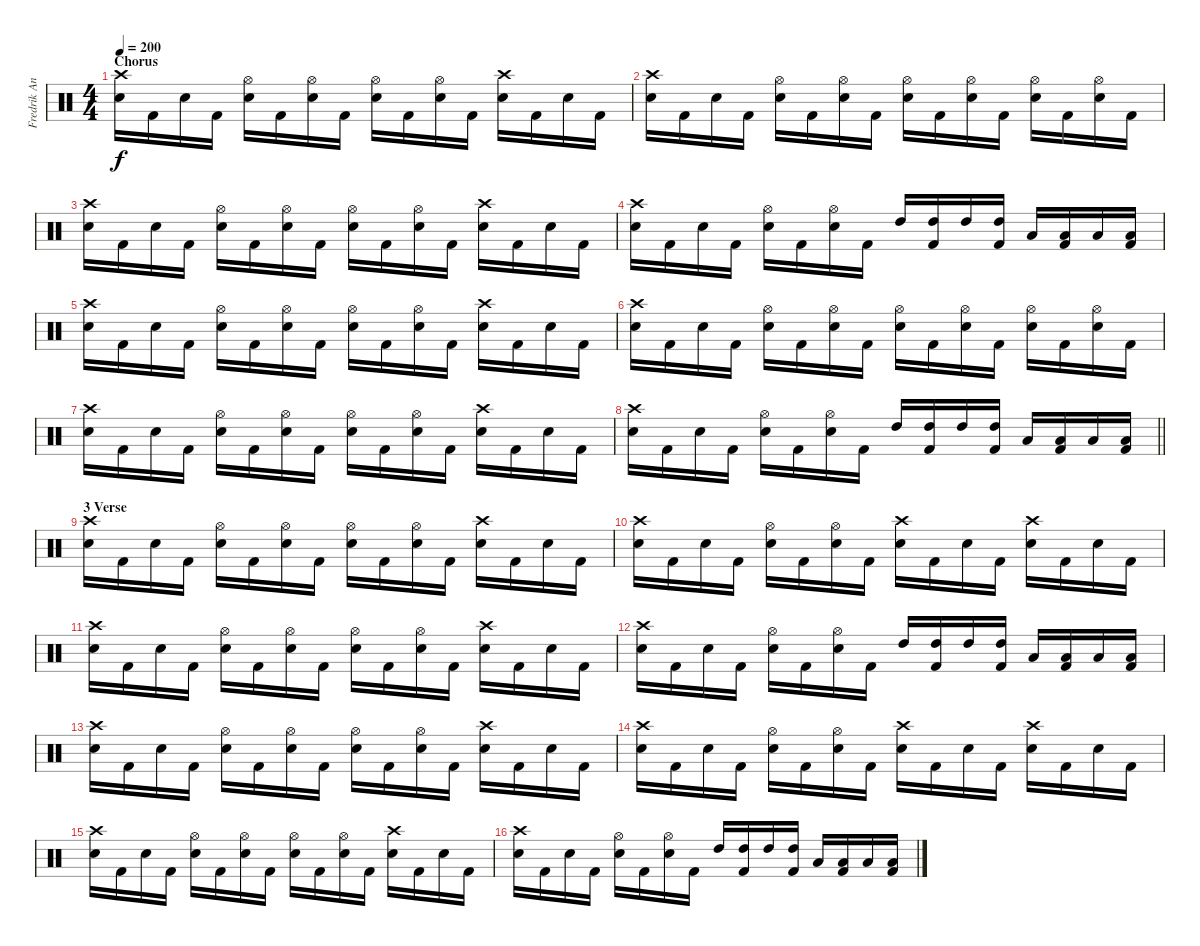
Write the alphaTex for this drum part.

\track ("Fredrik Andersson " "Fredrik An") {instrument percussion}
\staff {score}
\articulation defaults
\ts (4 4)
\section ("" "Chorus")
\tempo 200
\clef neutral
\ks c
("Crash high (hit)" "Snare (hit) 2").16{dy f} "Kick (hit) 2".16 "Snare (hit) 2".16 "Kick (hit) 2".16 ("Hi-Hat (open)" "Snare (hit) 2").16 "Kick (hit) 2".16 ("Hi-Hat (open)" "Snare (hit) 2").16 "Kick (hit) 2".16 ("Hi-Hat (open)" "Snare (hit) 2").16 "Kick (hit) 2".16 ("Hi-Hat (open)" "Snare (hit) 2").16 "Kick (hit) 2".16 ("Crash high (hit)" "Snare (hit) 2").16 "Kick (hit) 2".16 "Snare (hit) 2".16 "Kick (hit) 2".16 |
("Crash high (hit)" "Snare (hit) 2").16 "Kick (hit) 2".16 "Snare (hit) 2".16 "Kick (hit) 2".16 ("Hi-Hat (open)" "Snare (hit) 2").16 "Kick (hit) 2".16 ("Hi-Hat (open)" "Snare (hit) 2").16 "Kick (hit) 2".16 ("Hi-Hat (open)" "Snare (hit) 2").16 "Kick (hit) 2".16 ("Hi-Hat (open)" "Snare (hit) 2").16 "Kick (hit) 2".16 ("Hi-Hat (open)" "Snare (hit) 2").16 "Kick (hit) 2".16 ("Hi-Hat (open)" "Snare (hit) 2").16 "Kick (hit) 2".16 |
("Crash high (hit)" "Snare (hit) 2").16 "Kick (hit) 2".16 "Snare (hit) 2".16 "Kick (hit) 2".16 ("Hi-Hat (open)" "Snare (hit) 2").16 "Kick (hit) 2".16 ("Hi-Hat (open)" "Snare (hit) 2").16 "Kick (hit) 2".16 ("Hi-Hat (open)" "Snare (hit) 2").16 "Kick (hit) 2".16 ("Hi-Hat (open)" "Snare (hit) 2").16 "Kick (hit) 2".16 ("Crash high (hit)" "Snare (hit) 2").16 "Kick (hit) 2".16 "Snare (hit) 2".16 "Kick (hit) 2".16 |
("Crash high (hit)" "Snare (hit) 2").16 "Kick (hit) 2".16 "Snare (hit) 2".16 "Kick (hit) 2".16 ("Hi-Hat (open)" "Snare (hit) 2").16 "Kick (hit) 2".16 ("Hi-Hat (open)" "Snare (hit) 2").16 "Kick (hit) 2".16 "High Tom (hit)".16 ("High Tom (hit)" "Kick (hit) 2").16 "High Tom (hit)".16 ("High Tom (hit)" "Kick (hit) 2").16 "Low Tom (hit)".16 ("Low Tom (hit)" "Kick (hit) 2").16 "Low Tom (hit)".16 ("Low Tom (hit)" "Kick (hit) 2").16 |
("Crash high (hit)" "Snare (hit) 2").16 "Kick (hit) 2".16 "Snare (hit) 2".16 "Kick (hit) 2".16 ("Hi-Hat (open)" "Snare (hit) 2").16 "Kick (hit) 2".16 ("Hi-Hat (open)" "Snare (hit) 2").16 "Kick (hit) 2".16 ("Hi-Hat (open)" "Snare (hit) 2").16 "Kick (hit) 2".16 ("Hi-Hat (open)" "Snare (hit) 2").16 "Kick (hit) 2".16 ("Crash high (hit)" "Snare (hit) 2").16 "Kick (hit) 2".16 "Snare (hit) 2".16 "Kick (hit) 2".16 |
("Crash high (hit)" "Snare (hit) 2").16 "Kick (hit) 2".16 "Snare (hit) 2".16 "Kick (hit) 2".16 ("Hi-Hat (open)" "Snare (hit) 2").16 "Kick (hit) 2".16 ("Hi-Hat (open)" "Snare (hit) 2").16 "Kick (hit) 2".16 ("Hi-Hat (open)" "Snare (hit) 2").16 "Kick (hit) 2".16 ("Hi-Hat (open)" "Snare (hit) 2").16 "Kick (hit) 2".16 ("Hi-Hat (open)" "Snare (hit) 2").16 "Kick (hit) 2".16 ("Hi-Hat (open)" "Snare (hit) 2").16 "Kick (hit) 2".16 |
("Crash high (hit)" "Snare (hit) 2").16 "Kick (hit) 2".16 "Snare (hit) 2".16 "Kick (hit) 2".16 ("Hi-Hat (open)" "Snare (hit) 2").16 "Kick (hit) 2".16 ("Hi-Hat (open)" "Snare (hit) 2").16 "Kick (hit) 2".16 ("Hi-Hat (open)" "Snare (hit) 2").16 "Kick (hit) 2".16 ("Hi-Hat (open)" "Snare (hit) 2").16 "Kick (hit) 2".16 ("Crash high (hit)" "Snare (hit) 2").16 "Kick (hit) 2".16 "Snare (hit) 2".16 "Kick (hit) 2".16 |
\barLineRight lightlight
("Crash high (hit)" "Snare (hit) 2").16 "Kick (hit) 2".16 "Snare (hit) 2".16 "Kick (hit) 2".16 ("Hi-Hat (open)" "Snare (hit) 2").16 "Kick (hit) 2".16 ("Hi-Hat (open)" "Snare (hit) 2").16 "Kick (hit) 2".16 "High Tom (hit)".16 ("High Tom (hit)" "Kick (hit) 2").16 "High Tom (hit)".16 ("High Tom (hit)" "Kick (hit) 2").16 "Low Tom (hit)".16 ("Low Tom (hit)" "Kick (hit) 2").16 "Low Tom (hit)".16 ("Low Tom (hit)" "Kick (hit) 2").16 |
\section ("" "3 Verse")
("Crash high (hit)" "Snare (hit) 2").16 "Kick (hit) 2".16 "Snare (hit) 2".16 "Kick (hit) 2".16 ("Hi-Hat (open)" "Snare (hit) 2").16 "Kick (hit) 2".16 ("Hi-Hat (open)" "Snare (hit) 2").16 "Kick (hit) 2".16 ("Hi-Hat (open)" "Snare (hit) 2").16 "Kick (hit) 2".16 ("Hi-Hat (open)" "Snare (hit) 2").16 "Kick (hit) 2".16 ("Crash high (hit)" "Snare (hit) 2").16 "Kick (hit) 2".16 "Snare (hit) 2".16 "Kick (hit) 2".16 |
("Crash high (hit)" "Snare (hit) 2").16 "Kick (hit) 2".16 "Snare (hit) 2".16 "Kick (hit) 2".16 ("Hi-Hat (open)" "Snare (hit) 2").16 "Kick (hit) 2".16 ("Hi-Hat (open)" "Snare (hit) 2").16 "Kick (hit) 2".16 ("Crash high (hit)" "Snare (hit) 2").16 "Kick (hit) 2".16 "Snare (hit) 2".16 "Kick (hit) 2".16 ("Crash high (hit)" "Snare (hit) 2").16 "Kick (hit) 2".16 "Snare (hit) 2".16 "Kick (hit) 2".16 |
("Crash high (hit)" "Snare (hit) 2").16 "Kick (hit) 2".16 "Snare (hit) 2".16 "Kick (hit) 2".16 ("Hi-Hat (open)" "Snare (hit) 2").16 "Kick (hit) 2".16 ("Hi-Hat (open)" "Snare (hit) 2").16 "Kick (hit) 2".16 ("Hi-Hat (open)" "Snare (hit) 2").16 "Kick (hit) 2".16 ("Hi-Hat (open)" "Snare (hit) 2").16 "Kick (hit) 2".16 ("Crash high (hit)" "Snare (hit) 2").16 "Kick (hit) 2".16 "Snare (hit) 2".16 "Kick (hit) 2".16 |
("Crash high (hit)" "Snare (hit) 2").16 "Kick (hit) 2".16 "Snare (hit) 2".16 "Kick (hit) 2".16 ("Hi-Hat (open)" "Snare (hit) 2").16 "Kick (hit) 2".16 ("Hi-Hat (open)" "Snare (hit) 2").16 "Kick (hit) 2".16 "High Tom (hit)".16 ("High Tom (hit)" "Kick (hit) 2").16 "High Tom (hit)".16 ("High Tom (hit)" "Kick (hit) 2").16 "Low Tom (hit)".16 ("Low Tom (hit)" "Kick (hit) 2").16 "Low Tom (hit)".16 ("Low Tom (hit)" "Kick (hit) 2").16 |
("Crash high (hit)" "Snare (hit) 2").16 "Kick (hit) 2".16 "Snare (hit) 2".16 "Kick (hit) 2".16 ("Hi-Hat (open)" "Snare (hit) 2").16 "Kick (hit) 2".16 ("Hi-Hat (open)" "Snare (hit) 2").16 "Kick (hit) 2".16 ("Hi-Hat (open)" "Snare (hit) 2").16 "Kick (hit) 2".16 ("Hi-Hat (open)" "Snare (hit) 2").16 "Kick (hit) 2".16 ("Crash high (hit)" "Snare (hit) 2").16 "Kick (hit) 2".16 "Snare (hit) 2".16 "Kick (hit) 2".16 |
("Crash high (hit)" "Snare (hit) 2").16 "Kick (hit) 2".16 "Snare (hit) 2".16 "Kick (hit) 2".16 ("Hi-Hat (open)" "Snare (hit) 2").16 "Kick (hit) 2".16 ("Hi-Hat (open)" "Snare (hit) 2").16 "Kick (hit) 2".16 ("Crash high (hit)" "Snare (hit) 2").16 "Kick (hit) 2".16 "Snare (hit) 2".16 "Kick (hit) 2".16 ("Crash high (hit)" "Snare (hit) 2").16 "Kick (hit) 2".16 "Snare (hit) 2".16 "Kick (hit) 2".16 |
("Crash high (hit)" "Snare (hit) 2").16 "Kick (hit) 2".16 "Snare (hit) 2".16 "Kick (hit) 2".16 ("Hi-Hat (open)" "Snare (hit) 2").16 "Kick (hit) 2".16 ("Hi-Hat (open)" "Snare (hit) 2").16 "Kick (hit) 2".16 ("Hi-Hat (open)" "Snare (hit) 2").16 "Kick (hit) 2".16 ("Hi-Hat (open)" "Snare (hit) 2").16 "Kick (hit) 2".16 ("Crash high (hit)" "Snare (hit) 2").16 "Kick (hit) 2".16 "Snare (hit) 2".16 "Kick (hit) 2".16 |
("Crash high (hit)" "Snare (hit) 2").16 "Kick (hit) 2".16 "Snare (hit) 2".16 "Kick (hit) 2".16 ("Hi-Hat (open)" "Snare (hit) 2").16 "Kick (hit) 2".16 ("Hi-Hat (open)" "Snare (hit) 2").16 "Kick (hit) 2".16 "High Tom (hit)".16 ("High Tom (hit)" "Kick (hit) 2").16 "High Tom (hit)".16 ("High Tom (hit)" "Kick (hit) 2").16 "Low Tom (hit)".16 ("Low Tom (hit)" "Kick (hit) 2").16 "Low Tom (hit)".16 ("Low Tom (hit)" "Kick (hit) 2").16
